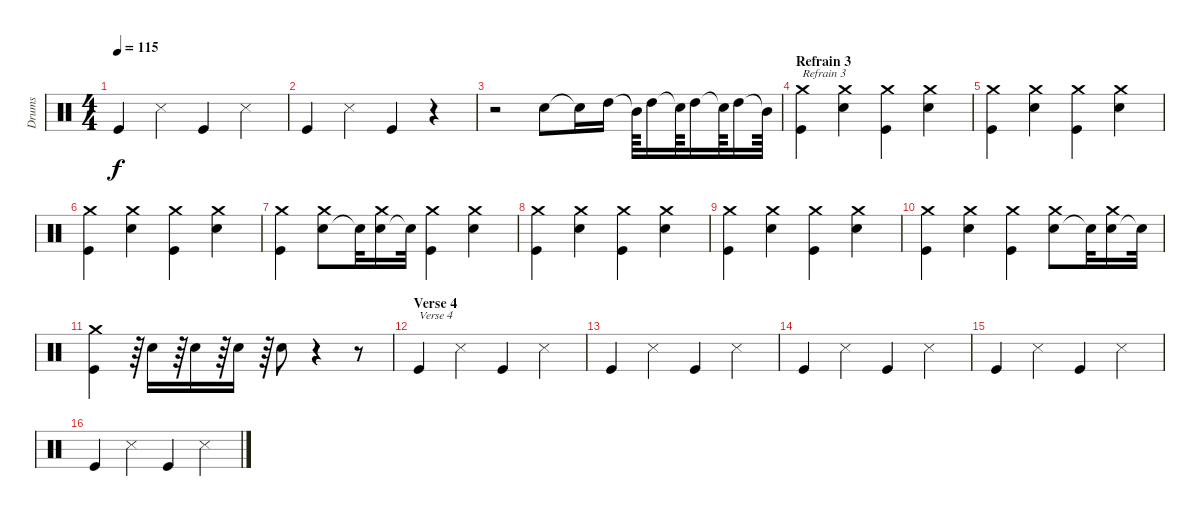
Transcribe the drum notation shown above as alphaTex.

\track ("Drums" "Drums") {instrument percussion}
\staff {score}
\articulation defaults
\ts (4 4)
\tempo 115
\clef neutral
\ks c "Kick (hit)".4{dy f} "Snare (side stick) 3".4 "Kick (hit)".4 "Snare (side stick) 3".4
|
"Kick (hit)".4 "Snare (side stick) 3".4 "Kick (hit)".4 r.4 |
r.2 "Snare (hit) 2".8 "Snare (hit)"{t}.16 "High Tom (hit)".16 "Mid Tom (hit)"{t}.64 "High Tom (hit)".16 "Snare (hit)"{t}.64 "High Tom (hit)".16 "Snare (hit)"{t}.64 "High Tom (hit)".16 "Mid Tom (hit)"{t}.64 |
\section ("" "Refrain 3")
("Kick (hit)" "Crash medium (hit)").4{txt "Refrain 3"} ("Snare (hit) 2" "Crash medium (hit)").4 ("Kick (hit)" "Crash medium (hit)").4 ("Snare (hit) 2" "Crash medium (hit)").4 |
("Kick (hit)" "Crash medium (hit)").4 ("Snare (hit) 2" "Crash medium (hit)").4 ("Kick (hit)" "Crash medium (hit)").4 ("Snare (hit) 2" "Crash medium (hit)").4 |
("Kick (hit)" "Crash medium (hit)").4 ("Snare (hit) 2" "Crash medium (hit)").4 ("Kick (hit)" "Crash medium (hit)").4 ("Snare (hit) 2" "Crash medium (hit)").4 |
("Kick (hit)" "Crash medium (hit)").4 ("Snare (hit) 2" "Crash medium (hit)").8 "Snare (hit)"{t}.32 ("Snare (hit) 2" "Crash medium (hit)").16 "Snare (hit)"{t}.32 ("Kick (hit)" "Crash medium (hit)").4 ("Snare (hit) 2" "Crash medium (hit)").4 |
("Kick (hit)" "Crash medium (hit)").4 ("Snare (hit) 2" "Crash medium (hit)").4 ("Kick (hit)" "Crash medium (hit)").4 ("Snare (hit) 2" "Crash medium (hit)").4 |
("Kick (hit)" "Crash medium (hit)").4 ("Snare (hit) 2" "Crash medium (hit)").4 ("Kick (hit)" "Crash medium (hit)").4 ("Snare (hit) 2" "Crash medium (hit)").4 |
("Kick (hit)" "Crash medium (hit)").4 ("Snare (hit) 2" "Crash medium (hit)").4 ("Kick (hit)" "Crash medium (hit)").4 ("Snare (hit) 2" "Crash medium (hit)").8 "Snare (hit)"{t}.32 ("Snare (hit) 2" "Crash medium (hit)").16 "Snare (hit) 2"{t}.32 |
("Kick (hit)" "Crash medium (hit)").4 r.64 "Snare (hit) 2".16 r.64 "Snare (hit) 2".16 r.64 "Snare (hit) 2".16 r.64 "Snare (hit) 2".8 r.4 r.8 |
\section ("" "Verse 4")
"Kick (hit)".4{txt "Verse 4"} "Snare (side stick) 3".4 "Kick (hit)".4 "Snare (side stick) 3".4 |
"Kick (hit)".4 "Snare (side stick) 3".4 "Kick (hit)".4 "Snare (side stick) 3".4 |
"Kick (hit)".4 "Snare (side stick) 3".4 "Kick (hit)".4 "Snare (side stick) 3".4 |
"Kick (hit)".4 "Snare (side stick) 3".4 "Kick (hit)".4 "Snare (side stick) 3".4 |
"Kick (hit)".4 "Snare (side stick) 3".4 "Kick (hit)".4 "Snare (side stick) 3".4
